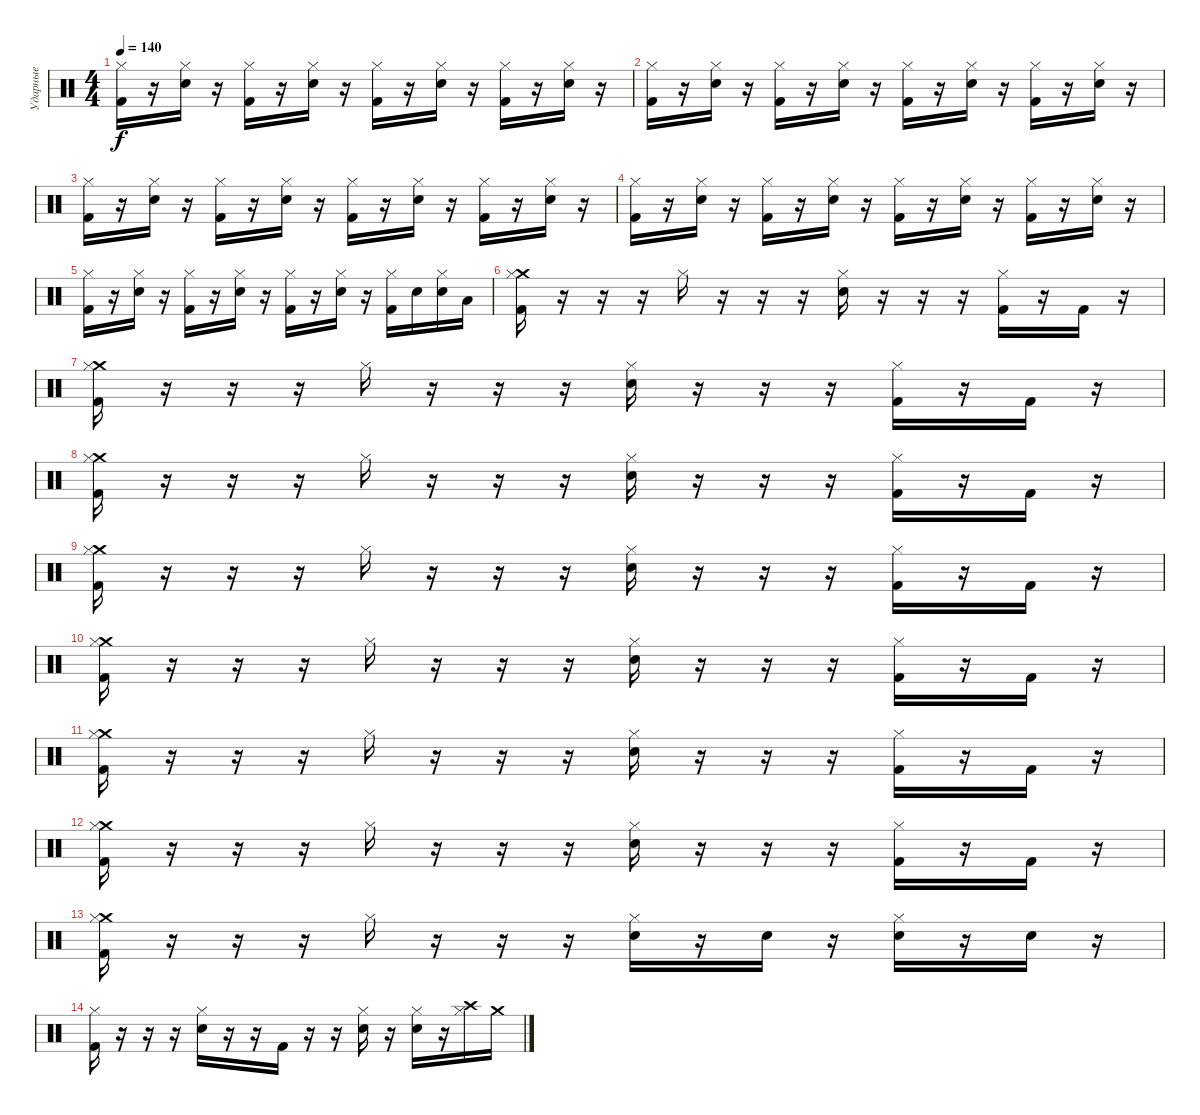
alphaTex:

\track ("Ударные" "Ударные") {instrument percussion}
\staff {score}
\articulation defaults
\ts (4 4)
\tempo 140
\clef neutral
\ks c
("Kick (hit) 2" "Hi-Hat (closed)").16{dy f} r.16 ("Electric Snare (hit)" "Hi-Hat (closed)").16 r.16 ("Kick (hit) 2" "Hi-Hat (closed)").16 r.16 ("Electric Snare (hit)" "Hi-Hat (closed)").16 r.16 ("Kick (hit) 2" "Hi-Hat (closed)").16 r.16 ("Electric Snare (hit)" "Hi-Hat (closed)").16 r.16 ("Kick (hit) 2" "Hi-Hat (closed)").16 r.16 ("Electric Snare (hit)" "Hi-Hat (closed)").16 r.16 |
("Kick (hit) 2" "Hi-Hat (closed)").16 r.16 ("Electric Snare (hit)" "Hi-Hat (closed)").16 r.16 ("Kick (hit) 2" "Hi-Hat (closed)").16 r.16 ("Electric Snare (hit)" "Hi-Hat (closed)").16 r.16 ("Kick (hit) 2" "Hi-Hat (closed)").16 r.16 ("Electric Snare (hit)" "Hi-Hat (closed)").16 r.16 ("Kick (hit) 2" "Hi-Hat (closed)").16 r.16 ("Electric Snare (hit)" "Hi-Hat (closed)").16 r.16 |
("Kick (hit) 2" "Hi-Hat (closed)").16 r.16 ("Electric Snare (hit)" "Hi-Hat (closed)").16 r.16 ("Kick (hit) 2" "Hi-Hat (closed)").16 r.16 ("Electric Snare (hit)" "Hi-Hat (closed)").16 r.16 ("Kick (hit) 2" "Hi-Hat (closed)").16 r.16 ("Electric Snare (hit)" "Hi-Hat (closed)").16 r.16 ("Kick (hit) 2" "Hi-Hat (closed)").16 r.16 ("Electric Snare (hit)" "Hi-Hat (closed)").16 r.16 |
("Kick (hit) 2" "Hi-Hat (closed)").16 r.16 ("Electric Snare (hit)" "Hi-Hat (closed)").16 r.16 ("Kick (hit) 2" "Hi-Hat (closed)").16 r.16 ("Electric Snare (hit)" "Hi-Hat (closed)").16 r.16 ("Kick (hit) 2" "Hi-Hat (closed)").16 r.16 ("Electric Snare (hit)" "Hi-Hat (closed)").16 r.16 ("Kick (hit) 2" "Hi-Hat (closed)").16 r.16 ("Electric Snare (hit)" "Hi-Hat (closed)").16 r.16 |
("Kick (hit) 2" "Hi-Hat (closed)").16 r.16 ("Electric Snare (hit)" "Hi-Hat (closed)").16 r.16 ("Kick (hit) 2" "Hi-Hat (closed)").16 r.16 ("Electric Snare (hit)" "Hi-Hat (closed)").16 r.16 ("Kick (hit) 2" "Hi-Hat (closed)").16 r.16 ("Electric Snare (hit)" "Hi-Hat (closed)").16 r.16 ("Kick (hit) 2" "Hi-Hat (closed)").16 "Electric Snare (hit)".16 ("Electric Snare (hit)" "Hi-Hat (closed)").16 "Low Tom (hit)".16 |
("Crash medium (hit)" "Kick (hit) 2" "Hi-Hat (closed)").16 r.16 r.16 r.16 "Hi-Hat (closed)".16 r.16 r.16 r.16 ("Electric Snare (hit)" "Hi-Hat (closed)").16 r.16 r.16 r.16 ("Kick (hit) 2" "Hi-Hat (closed)").16 r.16 "Kick (hit) 2".16 r.16 |
("Crash medium (hit)" "Kick (hit) 2" "Hi-Hat (closed)").16 r.16 r.16 r.16 "Hi-Hat (closed)".16 r.16 r.16 r.16 ("Electric Snare (hit)" "Hi-Hat (closed)").16 r.16 r.16 r.16 ("Kick (hit) 2" "Hi-Hat (closed)").16 r.16 "Kick (hit) 2".16 r.16 |
("Crash medium (hit)" "Kick (hit) 2" "Hi-Hat (closed)").16 r.16 r.16 r.16 "Hi-Hat (closed)".16 r.16 r.16 r.16 ("Electric Snare (hit)" "Hi-Hat (closed)").16 r.16 r.16 r.16 ("Kick (hit) 2" "Hi-Hat (closed)").16 r.16 "Kick (hit) 2".16 r.16 |
("Crash medium (hit)" "Kick (hit) 2" "Hi-Hat (closed)").16 r.16 r.16 r.16 "Hi-Hat (closed)".16 r.16 r.16 r.16 ("Electric Snare (hit)" "Hi-Hat (closed)").16 r.16 r.16 r.16 ("Kick (hit) 2" "Hi-Hat (closed)").16 r.16 "Kick (hit) 2".16 r.16 |
("Crash medium (hit)" "Kick (hit) 2" "Hi-Hat (closed)").16 r.16 r.16 r.16 "Hi-Hat (closed)".16 r.16 r.16 r.16 ("Electric Snare (hit)" "Hi-Hat (closed)").16 r.16 r.16 r.16 ("Kick (hit) 2" "Hi-Hat (closed)").16 r.16 "Kick (hit) 2".16 r.16 |
("Crash medium (hit)" "Kick (hit) 2" "Hi-Hat (closed)").16 r.16 r.16 r.16 "Hi-Hat (closed)".16 r.16 r.16 r.16 ("Electric Snare (hit)" "Hi-Hat (closed)").16 r.16 r.16 r.16 ("Kick (hit) 2" "Hi-Hat (closed)").16 r.16 "Kick (hit) 2".16 r.16 |
("Crash medium (hit)" "Kick (hit) 2" "Hi-Hat (closed)").16 r.16 r.16 r.16 "Hi-Hat (closed)".16 r.16 r.16 r.16 ("Electric Snare (hit)" "Hi-Hat (closed)").16 r.16 r.16 r.16 ("Kick (hit) 2" "Hi-Hat (closed)").16 r.16 "Kick (hit) 2".16 r.16 |
("Crash medium (hit)" "Kick (hit) 2" "Hi-Hat (closed)").16 r.16 r.16 r.16 "Hi-Hat (closed)".16 r.16 r.16 r.16 ("Electric Snare (hit)" "Hi-Hat (closed)").16 r.16 "Electric Snare (hit)".16 r.16 ("Electric Snare (hit)" "Hi-Hat (closed)").16 r.16 "Electric Snare (hit)".16 r.16 |
("Kick (hit) 2" "Hi-Hat (closed)").16 r.16 r.16 r.16 ("Electric Snare (hit)" "Hi-Hat (closed)").16 r.16 r.16 "Kick (hit) 2".16 r.16 r.16 ("Electric Snare (hit)" "Hi-Hat (closed)").16 r.16 ("Electric Snare (hit)" "Hi-Hat (closed)").16 r.16 ("Crash high (hit)" "Hi-Hat (closed)").16 "Crash medium (hit)".16
